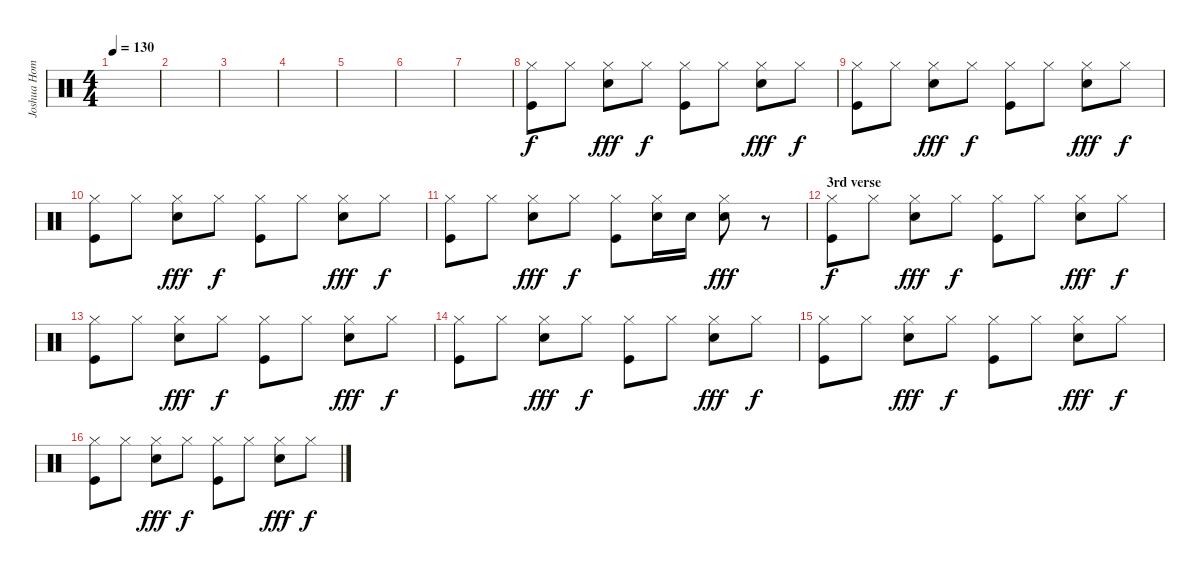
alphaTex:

\track ("Joshua Homme - drums" "Joshua Hom") {instrument percussion}
\staff {score}
\articulation defaults
\ts (4 4)
\tempo 130
\clef neutral
\ks c
|
|
|
|
|
|
|
("Hi-Hat (closed)" "Kick (hit)").8 "Hi-Hat (closed)".8 ("Hi-Hat (closed)" "Electric Snare (hit)").8{dy fff} "Hi-Hat (closed)".8{dy f} ("Hi-Hat (closed)" "Kick (hit)").8 "Hi-Hat (closed)".8 ("Hi-Hat (closed)" "Electric Snare (hit)").8{dy fff} "Hi-Hat (closed)".8{dy f} |
("Hi-Hat (closed)" "Kick (hit)").8 "Hi-Hat (closed)".8 ("Hi-Hat (closed)" "Electric Snare (hit)").8{dy fff} "Hi-Hat (closed)".8{dy f} ("Hi-Hat (closed)" "Kick (hit)").8 "Hi-Hat (closed)".8 ("Hi-Hat (closed)" "Electric Snare (hit)").8{dy fff} "Hi-Hat (closed)".8{dy f} |
("Hi-Hat (closed)" "Kick (hit)").8 "Hi-Hat (closed)".8 ("Hi-Hat (closed)" "Electric Snare (hit)").8{dy fff} "Hi-Hat (closed)".8{dy f} ("Hi-Hat (closed)" "Kick (hit)").8 "Hi-Hat (closed)".8 ("Hi-Hat (closed)" "Electric Snare (hit)").8{dy fff} "Hi-Hat (closed)".8{dy f} |
("Hi-Hat (closed)" "Kick (hit)").8 "Hi-Hat (closed)".8 ("Hi-Hat (closed)" "Electric Snare (hit)").8{dy fff} "Hi-Hat (closed)".8{dy f} ("Hi-Hat (closed)" "Kick (hit)").8 ("Hi-Hat (closed)" "Electric Snare (hit)").16 "Electric Snare (hit)".16 ("Hi-Hat (closed)" "Electric Snare (hit)").8{dy fff} r.8 |
\section ("" "3rd verse")
("Hi-Hat (closed)" "Kick (hit)").8{dy f} "Hi-Hat (closed)".8 ("Hi-Hat (closed)" "Electric Snare (hit)").8{dy fff} "Hi-Hat (closed)".8{dy f} ("Hi-Hat (closed)" "Kick (hit)").8 "Hi-Hat (closed)".8 ("Hi-Hat (closed)" "Electric Snare (hit)").8{dy fff} "Hi-Hat (closed)".8{dy f} |
("Hi-Hat (closed)" "Kick (hit)").8 "Hi-Hat (closed)".8 ("Hi-Hat (closed)" "Electric Snare (hit)").8{dy fff} "Hi-Hat (closed)".8{dy f} ("Hi-Hat (closed)" "Kick (hit)").8 "Hi-Hat (closed)".8 ("Hi-Hat (closed)" "Electric Snare (hit)").8{dy fff} "Hi-Hat (closed)".8{dy f} |
("Hi-Hat (closed)" "Kick (hit)").8 "Hi-Hat (closed)".8 ("Hi-Hat (closed)" "Electric Snare (hit)").8{dy fff} "Hi-Hat (closed)".8{dy f} ("Hi-Hat (closed)" "Kick (hit)").8 "Hi-Hat (closed)".8 ("Hi-Hat (closed)" "Electric Snare (hit)").8{dy fff} "Hi-Hat (closed)".8{dy f} |
("Hi-Hat (closed)" "Kick (hit)").8 "Hi-Hat (closed)".8 ("Hi-Hat (closed)" "Electric Snare (hit)").8{dy fff} "Hi-Hat (closed)".8{dy f} ("Hi-Hat (closed)" "Kick (hit)").8 "Hi-Hat (closed)".8 ("Hi-Hat (closed)" "Electric Snare (hit)").8{dy fff} "Hi-Hat (closed)".8{dy f} |
("Hi-Hat (closed)" "Kick (hit)").8 "Hi-Hat (closed)".8 ("Hi-Hat (closed)" "Electric Snare (hit)").8{dy fff} "Hi-Hat (closed)".8{dy f} ("Hi-Hat (closed)" "Kick (hit)").8 "Hi-Hat (closed)".8 ("Hi-Hat (closed)" "Electric Snare (hit)").8{dy fff} "Hi-Hat (closed)".8{dy f}
